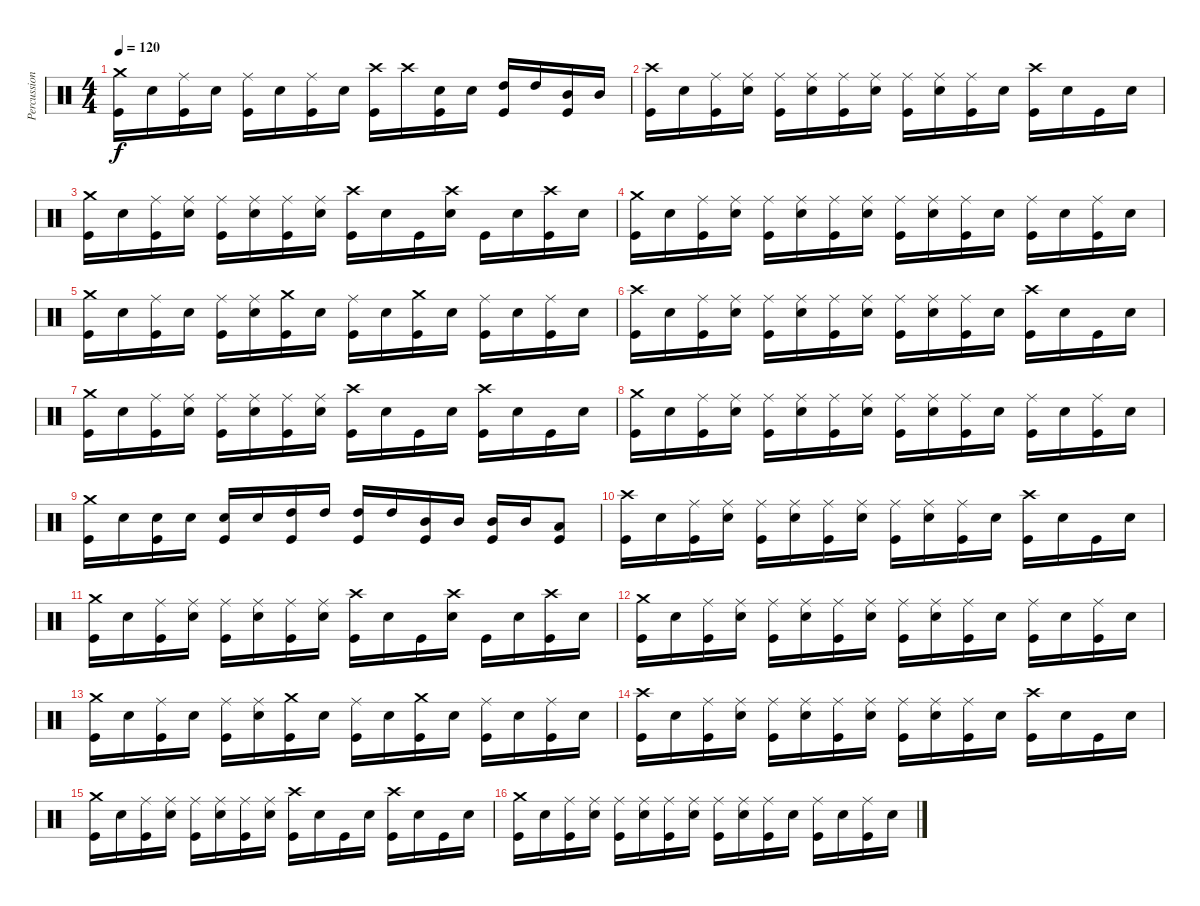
\track ("Percussioni" "Percussion") {instrument percussion}
\staff {score}
\articulation defaults
\ts (4 4)
\tempo 120
\clef neutral
\ks c
("Crash medium (hit)" "Kick (hit)").16{dy f} "Electric Snare (hit)".16 ("Ride (middle)" "Kick (hit)").16 "Electric Snare (hit)".16 ("Ride (middle)" "Kick (hit)").16 "Electric Snare (hit)".16 ("Ride (middle)" "Kick (hit)").16 "Electric Snare (hit)".16 ("Crash high (hit)" "Kick (hit)").16 "Crash high (hit)".16 ("Electric Snare (hit)" "Kick (hit)").16 "Electric Snare (hit)".16 ("High Tom (hit)" "Kick (hit)").16 "High Tom (hit)".16 ("Mid Tom (hit)" "Kick (hit)").16 "Mid Tom (hit)".16 |
("Crash high (hit)" "Kick (hit)").16 "Electric Snare (hit)".16 ("Ride (middle)" "Kick (hit)").16 ("Ride (middle)" "Electric Snare (hit)").16 ("Ride (middle)" "Kick (hit)").16 ("Ride (middle)" "Electric Snare (hit)").16 ("Ride (middle)" "Kick (hit)").16 ("Ride (middle)" "Electric Snare (hit)").16 ("Ride (middle)" "Kick (hit)").16 ("Ride (middle)" "Electric Snare (hit)").16 ("Ride (middle)" "Kick (hit)").16 "Electric Snare (hit)".16 ("Crash high (hit)" "Kick (hit)").16 "Electric Snare (hit)".16 "Kick (hit)".16 "Electric Snare (hit)".16 |
("Crash medium (hit)" "Kick (hit)").16 "Electric Snare (hit)".16 ("Ride (middle)" "Kick (hit)").16 ("Ride (middle)" "Electric Snare (hit)").16 ("Ride (middle)" "Kick (hit)").16 ("Ride (middle)" "Electric Snare (hit)").16 ("Ride (middle)" "Kick (hit)").16 ("Ride (middle)" "Electric Snare (hit)").16 ("Crash high (hit)" "Kick (hit)").16 "Electric Snare (hit)".16 "Kick (hit)".16 ("Crash high (hit)" "Electric Snare (hit)").16 "Kick (hit)".16 "Electric Snare (hit)".16 ("Crash high (hit)" "Kick (hit)").16 "Electric Snare (hit)".16 |
("Crash medium (hit)" "Kick (hit)").16 "Electric Snare (hit)".16 ("Ride (middle)" "Kick (hit)").16 ("Ride (middle)" "Electric Snare (hit)").16 ("Ride (middle)" "Kick (hit)").16 ("Ride (middle)" "Electric Snare (hit)").16 ("Ride (middle)" "Kick (hit)").16 ("Ride (middle)" "Electric Snare (hit)").16 ("Ride (middle)" "Kick (hit)").16 ("Ride (middle)" "Electric Snare (hit)").16 ("Ride (middle)" "Kick (hit)").16 "Electric Snare (hit)".16 ("Ride (middle)" "Kick (hit)").16 "Electric Snare (hit)".16 ("Ride (middle)" "Kick (hit)").16 "Electric Snare (hit)".16 |
("Crash medium (hit)" "Kick (hit)").16 "Electric Snare (hit)".16 ("Ride (middle)" "Kick (hit)").16 "Electric Snare (hit)".16 ("Ride (middle)" "Kick (hit)").16 ("Ride (middle)" "Electric Snare (hit)").16 ("Crash medium (hit)" "Kick (hit)").16 "Electric Snare (hit)".16 ("Ride (middle)" "Kick (hit)").16 "Electric Snare (hit)".16 ("Crash medium (hit)" "Kick (hit)").16 "Electric Snare (hit)".16 ("Ride (middle)" "Kick (hit)").16 "Electric Snare (hit)".16 ("Ride (middle)" "Kick (hit)").16 "Electric Snare (hit)".16 |
("Crash high (hit)" "Kick (hit)").16 "Electric Snare (hit)".16 ("Ride (middle)" "Kick (hit)").16 ("Ride (middle)" "Electric Snare (hit)").16 ("Ride (middle)" "Kick (hit)").16 ("Ride (middle)" "Electric Snare (hit)").16 ("Ride (middle)" "Kick (hit)").16 ("Ride (middle)" "Electric Snare (hit)").16 ("Ride (middle)" "Kick (hit)").16 ("Ride (middle)" "Electric Snare (hit)").16 ("Ride (middle)" "Kick (hit)").16 "Electric Snare (hit)".16 ("Crash high (hit)" "Kick (hit)").16 "Electric Snare (hit)".16 "Kick (hit)".16 "Electric Snare (hit)".16 |
("Crash medium (hit)" "Kick (hit)").16 "Electric Snare (hit)".16 ("Ride (middle)" "Kick (hit)").16 ("Ride (middle)" "Electric Snare (hit)").16 ("Ride (middle)" "Kick (hit)").16 ("Ride (middle)" "Electric Snare (hit)").16 ("Ride (middle)" "Kick (hit)").16 ("Ride (middle)" "Electric Snare (hit)").16 ("Crash high (hit)" "Kick (hit)").16 "Electric Snare (hit)".16 "Kick (hit)".16 "Electric Snare (hit)".16 ("Crash high (hit)" "Kick (hit)").16 "Electric Snare (hit)".16 "Kick (hit)".16 "Electric Snare (hit)".16 |
("Crash medium (hit)" "Kick (hit)").16 "Electric Snare (hit)".16 ("Ride (middle)" "Kick (hit)").16 ("Ride (middle)" "Electric Snare (hit)").16 ("Ride (middle)" "Kick (hit)").16 ("Ride (middle)" "Electric Snare (hit)").16 ("Ride (middle)" "Kick (hit)").16 ("Ride (middle)" "Electric Snare (hit)").16 ("Ride (middle)" "Kick (hit)").16 ("Ride (middle)" "Electric Snare (hit)").16 ("Ride (middle)" "Kick (hit)").16 "Electric Snare (hit)".16 ("Ride (middle)" "Kick (hit)").16 "Electric Snare (hit)".16 ("Ride (middle)" "Kick (hit)").16 "Electric Snare (hit)".16 |
("Crash medium (hit)" "Kick (hit)").16 "Electric Snare (hit)".16 ("Electric Snare (hit)" "Kick (hit)").16 "Electric Snare (hit)".16 ("Electric Snare (hit)" "Kick (hit)").16 "Electric Snare (hit)".16 ("High Tom (hit)" "Kick (hit)").16 "High Tom (hit)".16 ("High Tom (hit)" "Kick (hit)").16 "High Tom (hit)".16 ("Mid Tom (hit)" "Kick (hit)").16 "Mid Tom (hit)".16 ("Mid Tom (hit)" "Kick (hit)").16 "Mid Tom (hit)".16 ("Low Tom (hit)" "Kick (hit)").8 |
("Crash high (hit)" "Kick (hit)").16 "Electric Snare (hit)".16 ("Ride (middle)" "Kick (hit)").16 ("Ride (middle)" "Electric Snare (hit)").16 ("Ride (middle)" "Kick (hit)").16 ("Ride (middle)" "Electric Snare (hit)").16 ("Ride (middle)" "Kick (hit)").16 ("Ride (middle)" "Electric Snare (hit)").16 ("Ride (middle)" "Kick (hit)").16 ("Ride (middle)" "Electric Snare (hit)").16 ("Ride (middle)" "Kick (hit)").16 "Electric Snare (hit)".16 ("Crash high (hit)" "Kick (hit)").16 "Electric Snare (hit)".16 "Kick (hit)".16 "Electric Snare (hit)".16 |
("Crash medium (hit)" "Kick (hit)").16 "Electric Snare (hit)".16 ("Ride (middle)" "Kick (hit)").16 ("Ride (middle)" "Electric Snare (hit)").16 ("Ride (middle)" "Kick (hit)").16 ("Ride (middle)" "Electric Snare (hit)").16 ("Ride (middle)" "Kick (hit)").16 ("Ride (middle)" "Electric Snare (hit)").16 ("Crash high (hit)" "Kick (hit)").16 "Electric Snare (hit)".16 "Kick (hit)".16 ("Crash high (hit)" "Electric Snare (hit)").16 "Kick (hit)".16 "Electric Snare (hit)".16 ("Crash high (hit)" "Kick (hit)").16 "Electric Snare (hit)".16 |
("Crash medium (hit)" "Kick (hit)").16 "Electric Snare (hit)".16 ("Ride (middle)" "Kick (hit)").16 ("Ride (middle)" "Electric Snare (hit)").16 ("Ride (middle)" "Kick (hit)").16 ("Ride (middle)" "Electric Snare (hit)").16 ("Ride (middle)" "Kick (hit)").16 ("Ride (middle)" "Electric Snare (hit)").16 ("Ride (middle)" "Kick (hit)").16 ("Ride (middle)" "Electric Snare (hit)").16 ("Ride (middle)" "Kick (hit)").16 "Electric Snare (hit)".16 ("Ride (middle)" "Kick (hit)").16 "Electric Snare (hit)".16 ("Ride (middle)" "Kick (hit)").16 "Electric Snare (hit)".16 |
("Crash medium (hit)" "Kick (hit)").16 "Electric Snare (hit)".16 ("Ride (middle)" "Kick (hit)").16 "Electric Snare (hit)".16 ("Ride (middle)" "Kick (hit)").16 ("Ride (middle)" "Electric Snare (hit)").16 ("Crash medium (hit)" "Kick (hit)").16 "Electric Snare (hit)".16 ("Ride (middle)" "Kick (hit)").16 "Electric Snare (hit)".16 ("Crash medium (hit)" "Kick (hit)").16 "Electric Snare (hit)".16 ("Ride (middle)" "Kick (hit)").16 "Electric Snare (hit)".16 ("Ride (middle)" "Kick (hit)").16 "Electric Snare (hit)".16 |
("Crash high (hit)" "Kick (hit)").16 "Electric Snare (hit)".16 ("Ride (middle)" "Kick (hit)").16 ("Ride (middle)" "Electric Snare (hit)").16 ("Ride (middle)" "Kick (hit)").16 ("Ride (middle)" "Electric Snare (hit)").16 ("Ride (middle)" "Kick (hit)").16 ("Ride (middle)" "Electric Snare (hit)").16 ("Ride (middle)" "Kick (hit)").16 ("Ride (middle)" "Electric Snare (hit)").16 ("Ride (middle)" "Kick (hit)").16 "Electric Snare (hit)".16 ("Crash high (hit)" "Kick (hit)").16 "Electric Snare (hit)".16 "Kick (hit)".16 "Electric Snare (hit)".16 |
("Crash medium (hit)" "Kick (hit)").16 "Electric Snare (hit)".16 ("Ride (middle)" "Kick (hit)").16 ("Ride (middle)" "Electric Snare (hit)").16 ("Ride (middle)" "Kick (hit)").16 ("Ride (middle)" "Electric Snare (hit)").16 ("Ride (middle)" "Kick (hit)").16 ("Ride (middle)" "Electric Snare (hit)").16 ("Crash high (hit)" "Kick (hit)").16 "Electric Snare (hit)".16 "Kick (hit)".16 "Electric Snare (hit)".16 ("Crash high (hit)" "Kick (hit)").16 "Electric Snare (hit)".16 "Kick (hit)".16 "Electric Snare (hit)".16 |
("Crash medium (hit)" "Kick (hit)").16 "Electric Snare (hit)".16 ("Ride (middle)" "Kick (hit)").16 ("Ride (middle)" "Electric Snare (hit)").16 ("Ride (middle)" "Kick (hit)").16 ("Ride (middle)" "Electric Snare (hit)").16 ("Ride (middle)" "Kick (hit)").16 ("Ride (middle)" "Electric Snare (hit)").16 ("Ride (middle)" "Kick (hit)").16 ("Ride (middle)" "Electric Snare (hit)").16 ("Ride (middle)" "Kick (hit)").16 "Electric Snare (hit)".16 ("Ride (middle)" "Kick (hit)").16 "Electric Snare (hit)".16 ("Ride (middle)" "Kick (hit)").16 "Electric Snare (hit)".16
